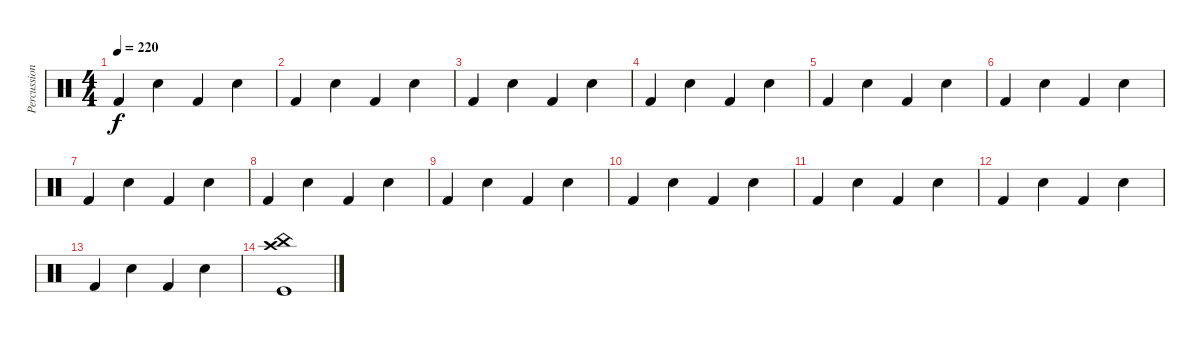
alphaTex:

\track ("Percussions" "Percussion") {instrument percussion}
\staff {score}
\articulation defaults
\ts (4 4)
\tempo 220
\clef neutral
\ks c "Kick (hit) 2".4{dy f} "Snare (hit) 2".4 "Kick (hit) 2".4 "Snare (hit) 2".4
|
"Kick (hit) 2".4 "Snare (hit) 2".4 "Kick (hit) 2".4 "Snare (hit) 2".4 |
"Kick (hit) 2".4 "Snare (hit) 2".4 "Kick (hit) 2".4 "Snare (hit) 2".4 |
"Kick (hit) 2".4 "Snare (hit) 2".4 "Kick (hit) 2".4 "Snare (hit) 2".4 |
"Kick (hit) 2".4 "Snare (hit) 2".4 "Kick (hit) 2".4 "Snare (hit) 2".4 |
"Kick (hit) 2".4 "Snare (hit) 2".4 "Kick (hit) 2".4 "Snare (hit) 2".4 |
"Kick (hit) 2".4 "Snare (hit) 2".4 "Kick (hit) 2".4 "Snare (hit) 2".4 |
"Kick (hit) 2".4 "Snare (hit) 2".4 "Kick (hit) 2".4 "Snare (hit) 2".4 |
"Kick (hit) 2".4 "Snare (hit) 2".4 "Kick (hit) 2".4 "Snare (hit) 2".4 |
"Kick (hit) 2".4 "Snare (hit) 2".4 "Kick (hit) 2".4 "Snare (hit) 2".4 |
"Kick (hit) 2".4 "Snare (hit) 2".4 "Kick (hit) 2".4 "Snare (hit) 2".4 |
"Kick (hit) 2".4 "Snare (hit) 2".4 "Kick (hit) 2".4 "Snare (hit) 2".4 |
"Kick (hit) 2".4 "Snare (hit) 2".4 "Kick (hit) 2".4 "Snare (hit) 2".4 |
("Kick (hit)" "Crash high (hit)" "China (hit)").1
